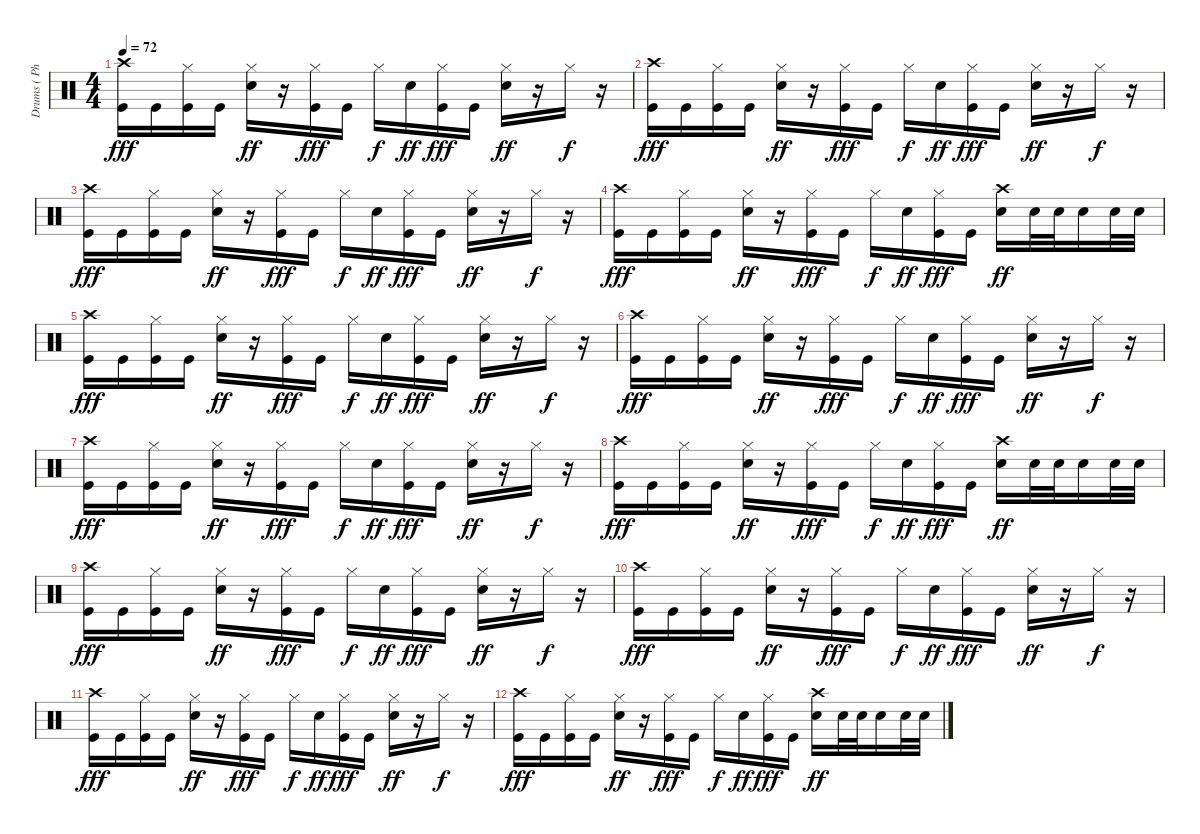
\track ("Drums ( Phillip Selway )" "Drums ( Ph") {instrument percussion}
\staff {score}
\articulation defaults
\ts (4 4)
\tempo 72
\clef neutral
\ks c
("Crash high (hit)" "Kick (hit)").16{dy fff} "Kick (hit)".16 ("Hi-Hat (closed)" "Kick (hit)").16 "Kick (hit)".16 ("Hi-Hat (closed)" "Electric Snare (hit)").16{dy ff} r.16 ("Hi-Hat (closed)" "Kick (hit)").16{dy fff} "Kick (hit)".16 "Hi-Hat (closed)".16{dy f} "Electric Snare (hit)".16{dy ff} ("Hi-Hat (closed)" "Kick (hit)").16{dy fff} "Kick (hit)".16 ("Hi-Hat (closed)" "Electric Snare (hit)").16{dy ff} r.16 "Hi-Hat (closed)".16{dy f} r.16 |
("Crash high (hit)" "Kick (hit)").16{dy fff} "Kick (hit)".16 ("Hi-Hat (closed)" "Kick (hit)").16 "Kick (hit)".16 ("Hi-Hat (closed)" "Electric Snare (hit)").16{dy ff} r.16 ("Hi-Hat (closed)" "Kick (hit)").16{dy fff} "Kick (hit)".16 "Hi-Hat (closed)".16{dy f} "Electric Snare (hit)".16{dy ff} ("Hi-Hat (closed)" "Kick (hit)").16{dy fff} "Kick (hit)".16 ("Hi-Hat (closed)" "Electric Snare (hit)").16{dy ff} r.16 "Hi-Hat (closed)".16{dy f} r.16 |
("Crash high (hit)" "Kick (hit)").16{dy fff} "Kick (hit)".16 ("Hi-Hat (closed)" "Kick (hit)").16 "Kick (hit)".16 ("Hi-Hat (closed)" "Electric Snare (hit)").16{dy ff} r.16 ("Hi-Hat (closed)" "Kick (hit)").16{dy fff} "Kick (hit)".16 "Hi-Hat (closed)".16{dy f} "Electric Snare (hit)".16{dy ff} ("Hi-Hat (closed)" "Kick (hit)").16{dy fff} "Kick (hit)".16 ("Hi-Hat (closed)" "Electric Snare (hit)").16{dy ff} r.16 "Hi-Hat (closed)".16{dy f} r.16 |
("Crash high (hit)" "Kick (hit)").16{dy fff} "Kick (hit)".16 ("Hi-Hat (closed)" "Kick (hit)").16 "Kick (hit)".16 ("Hi-Hat (closed)" "Electric Snare (hit)").16{dy ff} r.16 ("Hi-Hat (closed)" "Kick (hit)").16{dy fff} "Kick (hit)".16 "Hi-Hat (closed)".16{dy f} "Electric Snare (hit)".16{dy ff} ("Hi-Hat (closed)" "Kick (hit)").16{dy fff} "Kick (hit)".16 ("Crash high (hit)" "Electric Snare (hit)").16{dy ff} "Electric Snare (hit)".32 "Electric Snare (hit)".32 "Electric Snare (hit)".16 "Electric Snare (hit)".32 "Electric Snare (hit)".32 |
("Crash high (hit)" "Kick (hit)").16{dy fff} "Kick (hit)".16 ("Hi-Hat (closed)" "Kick (hit)").16 "Kick (hit)".16 ("Hi-Hat (closed)" "Electric Snare (hit)").16{dy ff} r.16 ("Hi-Hat (closed)" "Kick (hit)").16{dy fff} "Kick (hit)".16 "Hi-Hat (closed)".16{dy f} "Electric Snare (hit)".16{dy ff} ("Hi-Hat (closed)" "Kick (hit)").16{dy fff} "Kick (hit)".16 ("Hi-Hat (closed)" "Electric Snare (hit)").16{dy ff} r.16 "Hi-Hat (closed)".16{dy f} r.16 |
("Crash high (hit)" "Kick (hit)").16{dy fff} "Kick (hit)".16 ("Hi-Hat (closed)" "Kick (hit)").16 "Kick (hit)".16 ("Hi-Hat (closed)" "Electric Snare (hit)").16{dy ff} r.16 ("Hi-Hat (closed)" "Kick (hit)").16{dy fff} "Kick (hit)".16 "Hi-Hat (closed)".16{dy f} "Electric Snare (hit)".16{dy ff} ("Hi-Hat (closed)" "Kick (hit)").16{dy fff} "Kick (hit)".16 ("Hi-Hat (closed)" "Electric Snare (hit)").16{dy ff} r.16 "Hi-Hat (closed)".16{dy f} r.16 |
("Crash high (hit)" "Kick (hit)").16{dy fff} "Kick (hit)".16 ("Hi-Hat (closed)" "Kick (hit)").16 "Kick (hit)".16 ("Hi-Hat (closed)" "Electric Snare (hit)").16{dy ff} r.16 ("Hi-Hat (closed)" "Kick (hit)").16{dy fff} "Kick (hit)".16 "Hi-Hat (closed)".16{dy f} "Electric Snare (hit)".16{dy ff} ("Hi-Hat (closed)" "Kick (hit)").16{dy fff} "Kick (hit)".16 ("Hi-Hat (closed)" "Electric Snare (hit)").16{dy ff} r.16 "Hi-Hat (closed)".16{dy f} r.16 |
("Crash high (hit)" "Kick (hit)").16{dy fff} "Kick (hit)".16 ("Hi-Hat (closed)" "Kick (hit)").16 "Kick (hit)".16 ("Hi-Hat (closed)" "Electric Snare (hit)").16{dy ff} r.16 ("Hi-Hat (closed)" "Kick (hit)").16{dy fff} "Kick (hit)".16 "Hi-Hat (closed)".16{dy f} "Electric Snare (hit)".16{dy ff} ("Hi-Hat (closed)" "Kick (hit)").16{dy fff} "Kick (hit)".16 ("Crash high (hit)" "Electric Snare (hit)").16{dy ff} "Electric Snare (hit)".32 "Electric Snare (hit)".32 "Electric Snare (hit)".16 "Electric Snare (hit)".32 "Electric Snare (hit)".32 |
("Crash high (hit)" "Kick (hit)").16{dy fff} "Kick (hit)".16 ("Hi-Hat (closed)" "Kick (hit)").16 "Kick (hit)".16 ("Hi-Hat (closed)" "Electric Snare (hit)").16{dy ff} r.16 ("Hi-Hat (closed)" "Kick (hit)").16{dy fff} "Kick (hit)".16 "Hi-Hat (closed)".16{dy f} "Electric Snare (hit)".16{dy ff} ("Hi-Hat (closed)" "Kick (hit)").16{dy fff} "Kick (hit)".16 ("Hi-Hat (closed)" "Electric Snare (hit)").16{dy ff} r.16 "Hi-Hat (closed)".16{dy f} r.16 |
("Crash high (hit)" "Kick (hit)").16{dy fff} "Kick (hit)".16 ("Hi-Hat (closed)" "Kick (hit)").16 "Kick (hit)".16 ("Hi-Hat (closed)" "Electric Snare (hit)").16{dy ff} r.16 ("Hi-Hat (closed)" "Kick (hit)").16{dy fff} "Kick (hit)".16 "Hi-Hat (closed)".16{dy f} "Electric Snare (hit)".16{dy ff} ("Hi-Hat (closed)" "Kick (hit)").16{dy fff} "Kick (hit)".16 ("Hi-Hat (closed)" "Electric Snare (hit)").16{dy ff} r.16 "Hi-Hat (closed)".16{dy f} r.16 |
("Crash high (hit)" "Kick (hit)").16{dy fff} "Kick (hit)".16 ("Hi-Hat (closed)" "Kick (hit)").16 "Kick (hit)".16 ("Hi-Hat (closed)" "Electric Snare (hit)").16{dy ff} r.16 ("Hi-Hat (closed)" "Kick (hit)").16{dy fff} "Kick (hit)".16 "Hi-Hat (closed)".16{dy f} "Electric Snare (hit)".16{dy ff} ("Hi-Hat (closed)" "Kick (hit)").16{dy fff} "Kick (hit)".16 ("Hi-Hat (closed)" "Electric Snare (hit)").16{dy ff} r.16 "Hi-Hat (closed)".16{dy f} r.16 |
("Crash high (hit)" "Kick (hit)").16{dy fff} "Kick (hit)".16 ("Hi-Hat (closed)" "Kick (hit)").16 "Kick (hit)".16 ("Hi-Hat (closed)" "Electric Snare (hit)").16{dy ff} r.16 ("Hi-Hat (closed)" "Kick (hit)").16{dy fff} "Kick (hit)".16 "Hi-Hat (closed)".16{dy f} "Electric Snare (hit)".16{dy ff} ("Hi-Hat (closed)" "Kick (hit)").16{dy fff} "Kick (hit)".16 ("Crash high (hit)" "Electric Snare (hit)").16{dy ff} "Electric Snare (hit)".32 "Electric Snare (hit)".32 "Electric Snare (hit)".16 "Electric Snare (hit)".32 "Electric Snare (hit)".32
